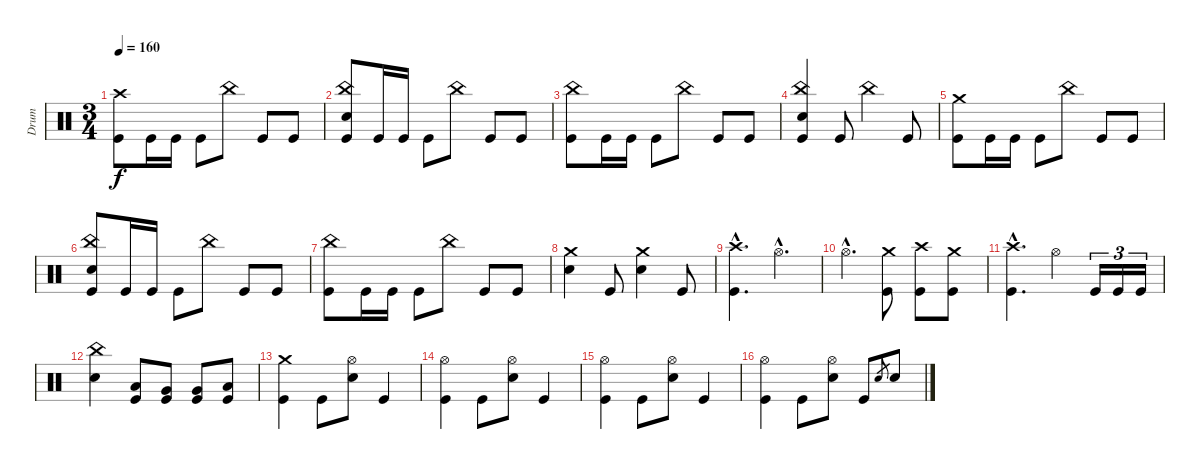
\track ("Drum" "Drum") {instrument percussion}
\staff {score}
\articulation defaults
\ts (3 4)
\tempo 160
\clef neutral
\ks c
("Kick (hit)" "Crash high (hit)").8{dy f} "Kick (hit)".16 "Kick (hit)".16 "Kick (hit)".8 "China (hit)".8 "Kick (hit)".8 "Kick (hit)".8 |
("Kick (hit)" "Electric Snare (hit)" "China (hit)").8 "Kick (hit)".16 "Kick (hit)".16 "Kick (hit)".8 "China (hit)".8 "Kick (hit)".8 "Kick (hit)".8 |
("Kick (hit)" "China (hit)").8 "Kick (hit)".16 "Kick (hit)".16 "Kick (hit)".8 "China (hit)".8 "Kick (hit)".8 "Kick (hit)".8 |
("Kick (hit)" "Electric Snare (hit)" "China (hit)").4 "Kick (hit)".8 "China (hit)".4 "Kick (hit)".8 |
("Kick (hit)" "Crash medium (hit)").8 "Kick (hit)".16 "Kick (hit)".16 "Kick (hit)".8 "China (hit)".8 "Kick (hit)".8 "Kick (hit)".8 |
("Kick (hit)" "Electric Snare (hit)" "China (hit)").8 "Kick (hit)".16 "Kick (hit)".16 "Kick (hit)".8 "China (hit)".8 "Kick (hit)".8 "Kick (hit)".8 |
("Kick (hit)" "China (hit)").8 "Kick (hit)".16 "Kick (hit)".16 "Kick (hit)".8 "China (hit)".8 "Kick (hit)".8 "Kick (hit)".8 |
("Electric Snare (hit)" "Crash medium (hit)").4 "Kick (hit)".8 ("Electric Snare (hit)" "Crash medium (hit)").4 "Kick (hit)".8 |
("Kick (hit)"{hac} "Crash high (hit)"{hac}).4{d} "Hi-Hat (open)"{hac}.4{d} |
"Hi-Hat (open)"{hac}.4{d} ("Kick (hit)" "Crash medium (hit)").8 ("Kick (hit)" "Crash high (hit)").8 ("Kick (hit)" "Crash medium (hit)").8 |
("Kick (hit)"{hac} "Crash high (hit)"{hac}).4{d} "Hi-Hat (open)".4 "Kick (hit)".16{tu (3 2)} "Kick (hit)".16{tu (3 2)} "Kick (hit)".16{tu (3 2)} |
("Electric Snare (hit)" "China (hit)").4 ("Kick (hit)" "Low Tom (hit)").8 ("Kick (hit)" "Very Low Tom (hit)").8 ("Kick (hit)" "Very Low Tom (hit)").8 ("Kick (hit)" "Low Floor Tom (hit)").8 |
("Kick (hit)" "Crash medium (hit)").4 "Kick (hit)".8 ("Electric Snare (hit)" "Hi-Hat (open)").8 "Kick (hit)".4 |
("Kick (hit)" "Hi-Hat (open)").4 "Kick (hit)".8 ("Electric Snare (hit)" "Hi-Hat (open)").8 "Kick (hit)".4 |
("Kick (hit)" "Hi-Hat (open)").4 "Kick (hit)".8 ("Electric Snare (hit)" "Hi-Hat (open)").8 "Kick (hit)".4 |
("Kick (hit)" "Hi-Hat (open)").4 "Kick (hit)".8 ("Electric Snare (hit)" "Hi-Hat (open)").8 "Kick (hit)".8 "Electric Snare (hit)".8{gr} "Electric Snare (hit)".8
